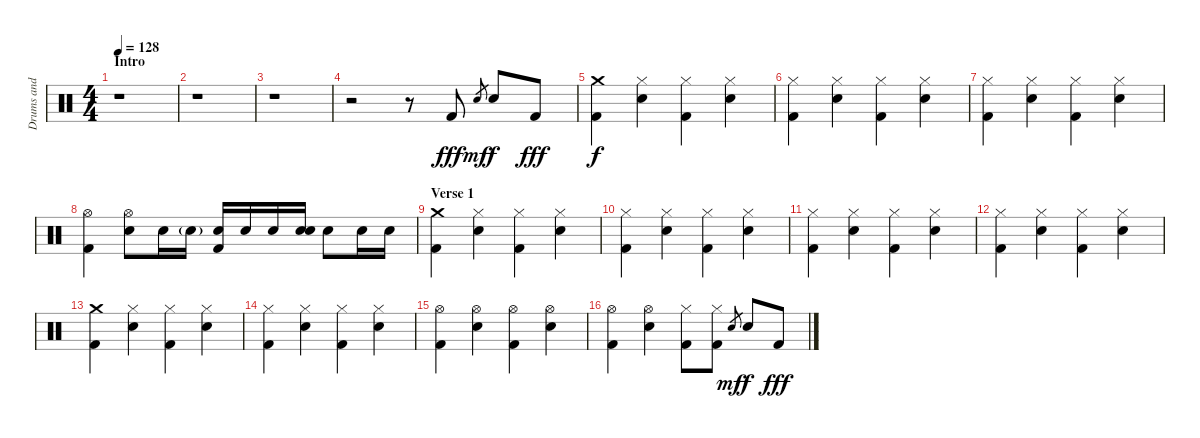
\track ("Drums and Percussion" "Drums and ") {instrument percussion}
\staff {score}
\articulation defaults
\ts (4 4)
\section ("" "Intro")
\tempo 128
\clef neutral
\ks c
r.1{dy fff} |
r.1 |
r.1 |
r.2 r.8 "Kick (hit) 2".8 "Snare (hit)".8{gr dy mf} "Snare (hit) 2".8{dy f} "Kick (hit) 2".8{dy fff} |
("Crash medium (hit)" "Kick (hit) 2").4{dy f} ("Hi-Hat (closed)" "Snare (hit) 2").4 ("Hi-Hat (closed)" "Kick (hit) 2").4 ("Hi-Hat (closed)" "Snare (hit) 2").4 |
("Hi-Hat (closed)" "Kick (hit) 2").4 ("Hi-Hat (closed)" "Snare (hit) 2").4 ("Hi-Hat (closed)" "Kick (hit) 2").4 ("Hi-Hat (closed)" "Snare (hit) 2").4 |
("Hi-Hat (closed)" "Kick (hit) 2").4 ("Hi-Hat (closed)" "Snare (hit) 2").4 ("Hi-Hat (closed)" "Kick (hit) 2").4 ("Hi-Hat (closed)" "Snare (hit) 2").4 |
("Hi-Hat (open)" "Kick (hit) 2").4 ("Hi-Hat (open)" "Snare (hit) 2").8 "Snare (hit)".16 "Snare (hit) 2"{g}.16 ("Snare (hit) 2" "Kick (hit) 2").16 "Snare (hit) 2".16 "Snare (hit) 2".16 ("Snare (hit) 2" "Snare (hit)").16 "Snare (hit) 2".8 "Snare (hit) 2".16 "Snare (hit) 2".16 |
\section ("" "Verse 1")
("Crash medium (hit)" "Kick (hit) 2").4 ("Hi-Hat (closed)" "Snare (hit) 2").4 ("Hi-Hat (closed)" "Kick (hit) 2").4 ("Hi-Hat (closed)" "Snare (hit) 2").4 |
("Hi-Hat (closed)" "Kick (hit) 2").4 ("Hi-Hat (closed)" "Snare (hit) 2").4 ("Hi-Hat (closed)" "Kick (hit) 2").4 ("Hi-Hat (closed)" "Snare (hit) 2").4 |
("Hi-Hat (closed)" "Kick (hit) 2").4 ("Hi-Hat (closed)" "Snare (hit) 2").4 ("Hi-Hat (closed)" "Kick (hit) 2").4 ("Hi-Hat (closed)" "Snare (hit) 2").4 |
("Hi-Hat (closed)" "Kick (hit) 2").4 ("Hi-Hat (closed)" "Snare (hit) 2").4 ("Hi-Hat (closed)" "Kick (hit) 2").4 ("Hi-Hat (closed)" "Snare (hit) 2").4 |
("Crash medium (hit)" "Kick (hit) 2").4 ("Hi-Hat (closed)" "Snare (hit) 2").4 ("Hi-Hat (closed)" "Kick (hit) 2").4 ("Hi-Hat (closed)" "Snare (hit) 2").4 |
("Hi-Hat (closed)" "Kick (hit) 2").4 ("Hi-Hat (closed)" "Snare (hit) 2").4 ("Hi-Hat (closed)" "Kick (hit) 2").4 ("Hi-Hat (closed)" "Snare (hit) 2").4 |
("Hi-Hat (open)" "Kick (hit) 2").4 ("Hi-Hat (open)" "Snare (hit) 2").4 ("Hi-Hat (open)" "Kick (hit) 2").4 ("Hi-Hat (open)" "Snare (hit) 2").4 |
("Hi-Hat (open)" "Kick (hit) 2").4 ("Hi-Hat (open)" "Snare (hit) 2").4 ("Hi-Hat (closed)" "Kick (hit) 2").8 ("Hi-Hat (closed)" "Kick (hit) 2").8 "Snare (hit)".8{gr dy mf} "Snare (hit) 2".8{dy f} "Kick (hit) 2".8{dy fff}
